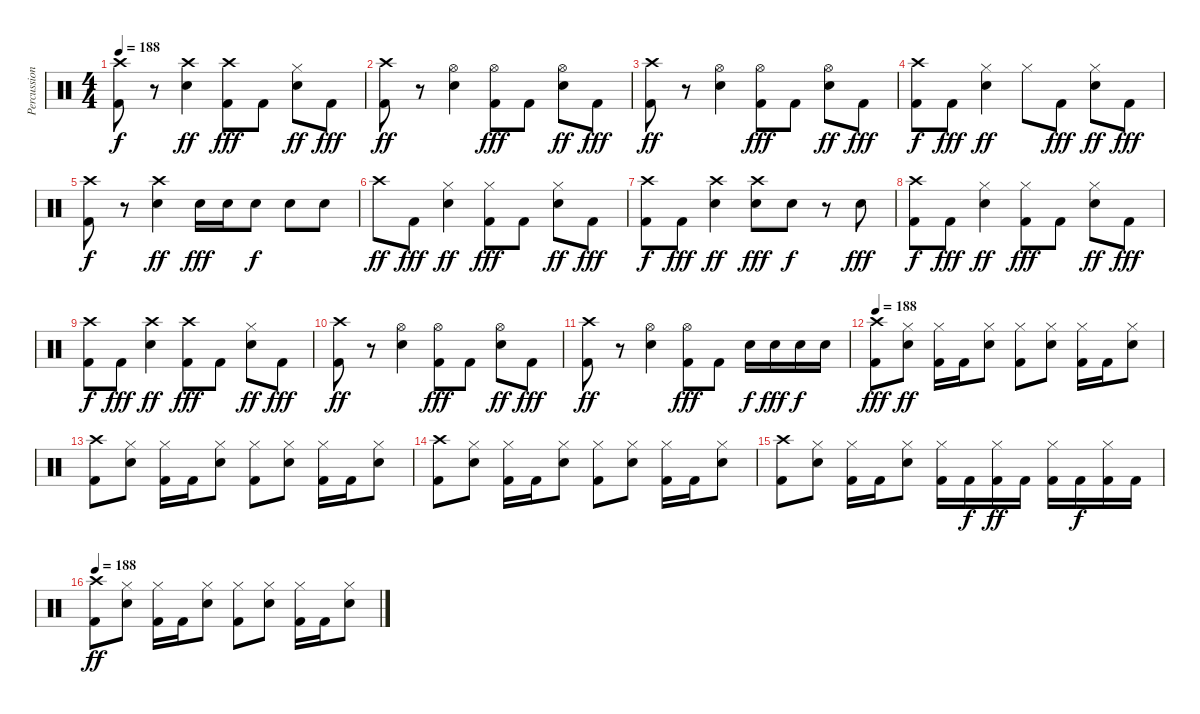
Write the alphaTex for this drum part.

\track ("Percussion" "Percussion") {instrument percussion}
\staff {score}
\articulation defaults
\ts (4 4)
\tempo 188
\clef neutral
\ks c
("Crash high (hit)" "Kick (hit) 2").8{dy f} r.8 ("Crash high (hit)" "Snare (hit) 2").4{dy ff} ("Crash high (hit)" "Kick (hit) 2").8{dy fff} "Kick (hit) 2".8 ("Hi-Hat (closed)" "Snare (hit) 2").8{dy ff} "Kick (hit) 2".8{dy fff} |
("Crash high (hit)" "Kick (hit) 2").8{dy ff} r.8 ("Hi-Hat (open)" "Snare (hit) 2").4 ("Hi-Hat (open)" "Kick (hit) 2").8{dy fff} "Kick (hit) 2".8 ("Hi-Hat (open)" "Snare (hit) 2").8{dy ff} "Kick (hit) 2".8{dy fff} |
("Crash high (hit)" "Kick (hit) 2").8{dy ff} r.8 ("Hi-Hat (open)" "Snare (hit) 2").4 ("Hi-Hat (open)" "Kick (hit) 2").8{dy fff} "Kick (hit) 2".8 ("Hi-Hat (open)" "Snare (hit) 2").8{dy ff} "Kick (hit) 2".8{dy fff} |
("Crash high (hit)" "Kick (hit) 2").8{dy f} "Kick (hit) 2".8{dy fff} ("Hi-Hat (closed)" "Snare (hit) 2").4{dy ff} "Hi-Hat (closed)".8 "Kick (hit) 2".8{dy fff} ("Hi-Hat (closed)" "Snare (hit) 2").8{dy ff} "Kick (hit) 2".8{dy fff} |
("Crash high (hit)" "Kick (hit) 2").8{dy f} r.8 ("Crash high (hit)" "Snare (hit) 2").4{dy ff} "Snare (hit) 2".16{dy fff} "Snare (hit) 2".16 "Snare (hit) 2".8{dy f} "Snare (hit) 2".8 "Snare (hit) 2".8 |
"Crash high (hit)".8{dy ff} "Kick (hit) 2".8{dy fff} ("Hi-Hat (closed)" "Snare (hit) 2").4{dy ff} ("Hi-Hat (closed)" "Kick (hit) 2").8{dy fff} "Kick (hit) 2".8 ("Hi-Hat (closed)" "Snare (hit) 2").8{dy ff} "Kick (hit) 2".8{dy fff} |
("Crash high (hit)" "Kick (hit) 2").8{dy f} "Kick (hit) 2".8{dy fff} ("Crash high (hit)" "Snare (hit) 2").4{dy ff} ("Crash high (hit)" "Snare (hit) 2").8{dy fff} "Snare (hit) 2".8{dy f} r.8 "Snare (hit) 2".8{dy fff} |
("Crash high (hit)" "Kick (hit) 2").8{dy f} "Kick (hit) 2".8{dy fff} ("Hi-Hat (closed)" "Snare (hit) 2").4{dy ff} ("Hi-Hat (closed)" "Kick (hit) 2").8{dy fff} "Kick (hit) 2".8 ("Hi-Hat (closed)" "Snare (hit) 2").8{dy ff} "Kick (hit) 2".8{dy fff} |
("Crash high (hit)" "Kick (hit) 2").8{dy f} "Kick (hit) 2".8{dy fff} ("Crash high (hit)" "Snare (hit) 2").4{dy ff} ("Crash high (hit)" "Kick (hit) 2").8{dy fff} "Kick (hit) 2".8 ("Hi-Hat (closed)" "Snare (hit) 2").8{dy ff} "Kick (hit) 2".8{dy fff} |
("Crash high (hit)" "Kick (hit) 2").8{dy ff} r.8 ("Hi-Hat (open)" "Snare (hit) 2").4 ("Hi-Hat (open)" "Kick (hit) 2").8{dy fff} "Kick (hit) 2".8 ("Hi-Hat (open)" "Snare (hit) 2").8{dy ff} "Kick (hit) 2".8{dy fff} |
("Crash high (hit)" "Kick (hit) 2").8{dy ff} r.8 ("Hi-Hat (open)" "Snare (hit) 2").4 ("Hi-Hat (open)" "Kick (hit) 2").8{dy fff} "Kick (hit) 2".8 "Snare (hit) 2".16{dy f} "Snare (hit) 2".16{dy fff} "Snare (hit) 2".16{dy f} "Snare (hit) 2".16 |
\tempo 188
("Crash high (hit)" "Kick (hit) 2").8{dy fff} ("Hi-Hat (closed)" "Snare (hit) 2").8{dy ff} ("Hi-Hat (closed)" "Kick (hit) 2").16 "Kick (hit) 2".16 ("Hi-Hat (closed)" "Snare (hit) 2").8 ("Hi-Hat (closed)" "Kick (hit) 2").8 ("Hi-Hat (closed)" "Snare (hit) 2").8 ("Hi-Hat (closed)" "Kick (hit) 2").16 "Kick (hit) 2".16 ("Hi-Hat (closed)" "Snare (hit) 2").8 |
("Crash high (hit)" "Kick (hit) 2").8 ("Hi-Hat (closed)" "Snare (hit) 2").8 ("Hi-Hat (closed)" "Kick (hit) 2").16 "Kick (hit) 2".16 ("Hi-Hat (closed)" "Snare (hit) 2").8 ("Hi-Hat (closed)" "Kick (hit) 2").8 ("Hi-Hat (closed)" "Snare (hit) 2").8 ("Hi-Hat (closed)" "Kick (hit) 2").16 "Kick (hit) 2".16 ("Hi-Hat (closed)" "Snare (hit) 2").8 |
("Crash high (hit)" "Kick (hit) 2").8 ("Hi-Hat (closed)" "Snare (hit) 2").8 ("Hi-Hat (closed)" "Kick (hit) 2").16 "Kick (hit) 2".16 ("Hi-Hat (closed)" "Snare (hit) 2").8 ("Hi-Hat (closed)" "Kick (hit) 2").8 ("Hi-Hat (closed)" "Snare (hit) 2").8 ("Hi-Hat (closed)" "Kick (hit) 2").16 "Kick (hit) 2".16 ("Hi-Hat (closed)" "Snare (hit) 2").8 |
("Crash high (hit)" "Kick (hit) 2").8 ("Hi-Hat (closed)" "Snare (hit) 2").8 ("Hi-Hat (closed)" "Kick (hit) 2").16 "Kick (hit) 2".16 ("Hi-Hat (closed)" "Snare (hit) 2").8 ("Hi-Hat (closed)" "Kick (hit) 2").16 "Kick (hit) 2".16{dy f} ("Hi-Hat (closed)" "Kick (hit) 2").16{dy ff} "Kick (hit) 2".16 ("Hi-Hat (closed)" "Kick (hit) 2").16 "Kick (hit) 2".16{dy f} ("Hi-Hat (closed)" "Kick (hit) 2").16 "Kick (hit) 2".16 |
\tempo 188
("Crash high (hit)" "Kick (hit) 2").8{dy ff} ("Hi-Hat (closed)" "Snare (hit) 2").8 ("Hi-Hat (closed)" "Kick (hit) 2").16 "Kick (hit) 2".16 ("Hi-Hat (closed)" "Snare (hit) 2").8 ("Hi-Hat (closed)" "Kick (hit) 2").8 ("Hi-Hat (closed)" "Snare (hit) 2").8 ("Hi-Hat (closed)" "Kick (hit) 2").16 "Kick (hit) 2".16 ("Hi-Hat (closed)" "Snare (hit) 2").8
